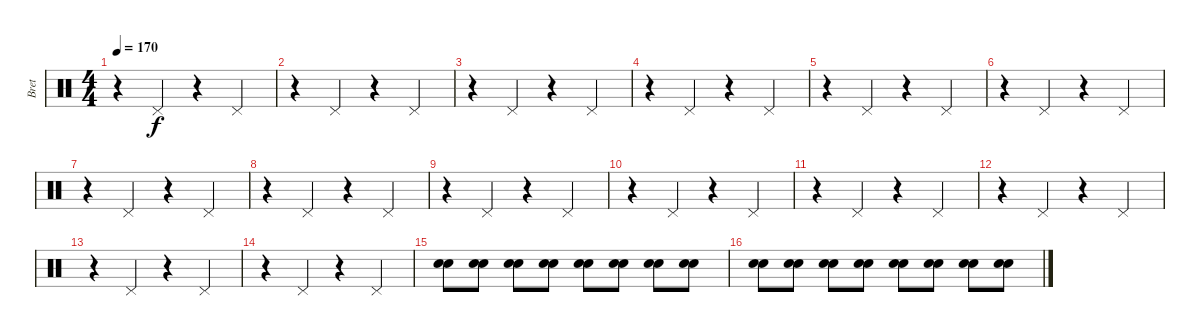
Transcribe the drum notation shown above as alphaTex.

\track ("Bret" "Bret") {instrument percussion}
\staff {score}
\articulation defaults
\ts (4 4)
\tempo 170
\clef neutral
\ks c
r.4{dy f} "Pedal Hi-Hat (hit)".4 r.4 "Pedal Hi-Hat (hit)".4 |
r.4 "Pedal Hi-Hat (hit)".4 r.4 "Pedal Hi-Hat (hit)".4 |
r.4 "Pedal Hi-Hat (hit)".4 r.4 "Pedal Hi-Hat (hit)".4 |
r.4 "Pedal Hi-Hat (hit)".4 r.4 "Pedal Hi-Hat (hit)".4 |
r.4 "Pedal Hi-Hat (hit)".4 r.4 "Pedal Hi-Hat (hit)".4 |
r.4 "Pedal Hi-Hat (hit)".4 r.4 "Pedal Hi-Hat (hit)".4 |
r.4 "Pedal Hi-Hat (hit)".4 r.4 "Pedal Hi-Hat (hit)".4 |
r.4 "Pedal Hi-Hat (hit)".4 r.4 "Pedal Hi-Hat (hit)".4 |
r.4 "Pedal Hi-Hat (hit)".4 r.4 "Pedal Hi-Hat (hit)".4 |
r.4 "Pedal Hi-Hat (hit)".4 r.4 "Pedal Hi-Hat (hit)".4 |
r.4 "Pedal Hi-Hat (hit)".4 r.4 "Pedal Hi-Hat (hit)".4 |
r.4 "Pedal Hi-Hat (hit)".4 r.4 "Pedal Hi-Hat (hit)".4 |
r.4 "Pedal Hi-Hat (hit)".4 r.4 "Pedal Hi-Hat (hit)".4 |
r.4 "Pedal Hi-Hat (hit)".4 r.4 "Pedal Hi-Hat (hit)".4 |
("Electric Snare (hit)" "Electric Snare (hit)").8 ("Electric Snare (hit)" "Electric Snare (hit)").8 ("Electric Snare (hit)" "Electric Snare (hit)").8 ("Electric Snare (hit)" "Electric Snare (hit)").8 ("Electric Snare (hit)" "Electric Snare (hit)").8 ("Electric Snare (hit)" "Electric Snare (hit)").8 ("Electric Snare (hit)" "Electric Snare (hit)").8 ("Electric Snare (hit)" "Electric Snare (hit)").8 |
("Electric Snare (hit)" "Electric Snare (hit)").8 ("Electric Snare (hit)" "Electric Snare (hit)").8 ("Electric Snare (hit)" "Electric Snare (hit)").8 ("Electric Snare (hit)" "Electric Snare (hit)").8 ("Electric Snare (hit)" "Electric Snare (hit)").8 ("Electric Snare (hit)" "Electric Snare (hit)").8 ("Electric Snare (hit)" "Electric Snare (hit)").8 ("Electric Snare (hit)" "Electric Snare (hit)").8
